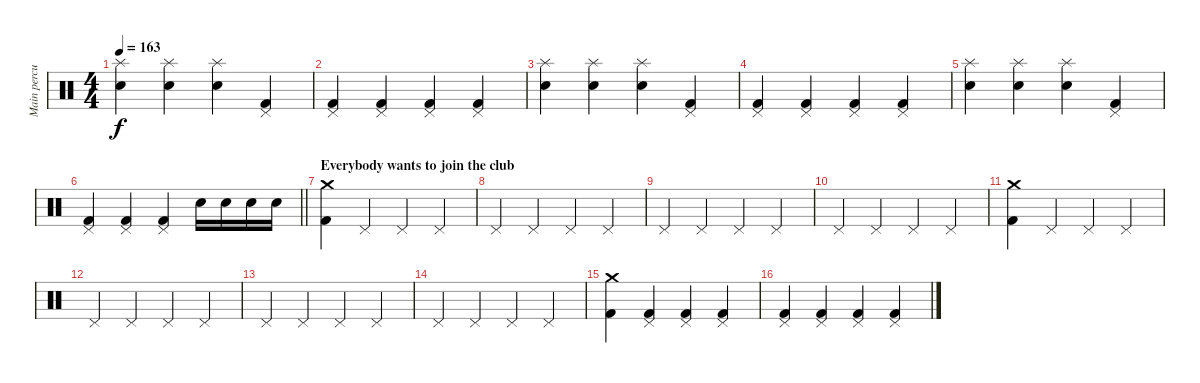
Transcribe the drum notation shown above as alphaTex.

\track ("Main percussion" "Main percu") {instrument percussion}
\staff {score}
\articulation defaults
\ts (4 4)
\tempo 163
\clef neutral
\ks c
("Electric Snare (hit)" "Splash (hit)").4{dy f} ("Electric Snare (hit)" "Splash (hit)").4 ("Electric Snare (hit)" "Splash (hit)").4 ("Kick (hit) 2" "Pedal Hi-Hat (hit)").4 |
("Kick (hit) 2" "Pedal Hi-Hat (hit)").4 ("Kick (hit) 2" "Pedal Hi-Hat (hit)").4 ("Kick (hit) 2" "Pedal Hi-Hat (hit)").4 ("Kick (hit) 2" "Pedal Hi-Hat (hit)").4 |
("Electric Snare (hit)" "Splash (hit)").4 ("Electric Snare (hit)" "Splash (hit)").4 ("Electric Snare (hit)" "Splash (hit)").4 ("Kick (hit) 2" "Pedal Hi-Hat (hit)").4 |
("Kick (hit) 2" "Pedal Hi-Hat (hit)").4 ("Kick (hit) 2" "Pedal Hi-Hat (hit)").4 ("Kick (hit) 2" "Pedal Hi-Hat (hit)").4 ("Kick (hit) 2" "Pedal Hi-Hat (hit)").4 |
("Electric Snare (hit)" "Splash (hit)").4 ("Electric Snare (hit)" "Splash (hit)").4 ("Electric Snare (hit)" "Splash (hit)").4 ("Kick (hit) 2" "Pedal Hi-Hat (hit)").4 |
\barLineRight lightlight
("Kick (hit) 2" "Pedal Hi-Hat (hit)").4 ("Kick (hit) 2" "Pedal Hi-Hat (hit)").4 ("Kick (hit) 2" "Pedal Hi-Hat (hit)").4 "Electric Snare (hit)".16 "Electric Snare (hit)".16 "Electric Snare (hit)".16 "Electric Snare (hit)".16 |
\section ("" "Everybody wants to join the club")
("Crash medium (hit)" "Kick (hit) 2").4 "Pedal Hi-Hat (hit)".4 "Pedal Hi-Hat (hit)".4 "Pedal Hi-Hat (hit)".4 |
"Pedal Hi-Hat (hit)".4 "Pedal Hi-Hat (hit)".4 "Pedal Hi-Hat (hit)".4 "Pedal Hi-Hat (hit)".4 |
"Pedal Hi-Hat (hit)".4 "Pedal Hi-Hat (hit)".4 "Pedal Hi-Hat (hit)".4 "Pedal Hi-Hat (hit)".4 |
"Pedal Hi-Hat (hit)".4 "Pedal Hi-Hat (hit)".4 "Pedal Hi-Hat (hit)".4 "Pedal Hi-Hat (hit)".4 |
("Crash medium (hit)" "Kick (hit) 2").4 "Pedal Hi-Hat (hit)".4 "Pedal Hi-Hat (hit)".4 "Pedal Hi-Hat (hit)".4 |
"Pedal Hi-Hat (hit)".4 "Pedal Hi-Hat (hit)".4 "Pedal Hi-Hat (hit)".4 "Pedal Hi-Hat (hit)".4 |
"Pedal Hi-Hat (hit)".4 "Pedal Hi-Hat (hit)".4 "Pedal Hi-Hat (hit)".4 "Pedal Hi-Hat (hit)".4 |
"Pedal Hi-Hat (hit)".4 "Pedal Hi-Hat (hit)".4 "Pedal Hi-Hat (hit)".4 "Pedal Hi-Hat (hit)".4 |
("Crash medium (hit)" "Kick (hit) 2").4 ("Pedal Hi-Hat (hit)" "Kick (hit) 2").4 ("Pedal Hi-Hat (hit)" "Kick (hit) 2").4 ("Pedal Hi-Hat (hit)" "Kick (hit) 2").4 |
("Pedal Hi-Hat (hit)" "Kick (hit) 2").4 ("Pedal Hi-Hat (hit)" "Kick (hit) 2").4 ("Pedal Hi-Hat (hit)" "Kick (hit) 2").4 ("Pedal Hi-Hat (hit)" "Kick (hit) 2").4
